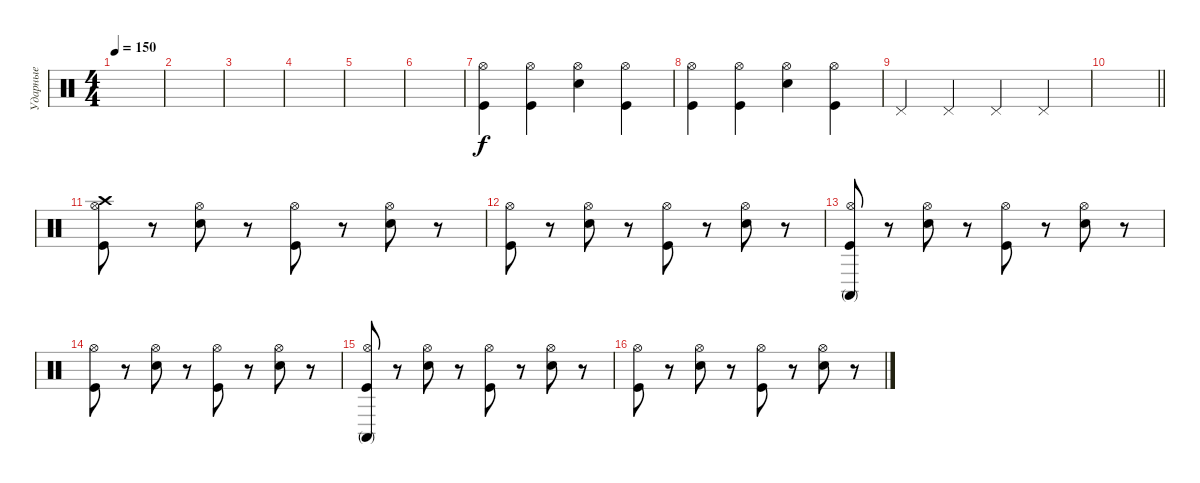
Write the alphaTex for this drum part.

\track ("Ударные" "Ударные") {instrument percussion}
\staff {score}
\articulation defaults
\ts (4 4)
\tempo 150
\clef neutral
\ks c
|
|
|
|
|
|
("Hi-Hat (open)" "Kick (hit)").4 ("Hi-Hat (open)" "Kick (hit)").4 ("Hi-Hat (open)" "Snare (hit) 2").4 ("Hi-Hat (open)" "Kick (hit)").4 |
("Hi-Hat (open)" "Kick (hit)").4 ("Hi-Hat (open)" "Kick (hit)").4 ("Hi-Hat (open)" "Snare (hit) 2").4 ("Hi-Hat (open)" "Kick (hit)").4 |
"Pedal Hi-Hat (hit)".4 "Pedal Hi-Hat (hit)".4 "Pedal Hi-Hat (hit)".4 "Pedal Hi-Hat (hit)".4 |
\barLineRight lightlight
|
("Hi-Hat (open)" "Kick (hit)" "Crash high (hit)").8 r.8 ("Hi-Hat (open)" "Snare (hit) 2").8 r.8 ("Hi-Hat (open)" "Kick (hit)").8 r.8 ("Hi-Hat (open)" "Snare (hit) 2").8 r.8 |
("Hi-Hat (open)" "Kick (hit)").8 r.8 ("Hi-Hat (open)" "Snare (hit) 2").8 r.8 ("Hi-Hat (open)" "Kick (hit)").8 r.8 ("Hi-Hat (open)" "Snare (hit) 2").8 r.8 |
("Hi-Hat (open)" "Kick (hit)" "Conga high (mute)").8 r.8 ("Hi-Hat (open)" "Snare (hit) 2").8 r.8 ("Hi-Hat (open)" "Kick (hit)").8 r.8 ("Hi-Hat (open)" "Snare (hit) 2").8 r.8 |
("Hi-Hat (open)" "Kick (hit)").8 r.8 ("Hi-Hat (open)" "Snare (hit) 2").8 r.8 ("Hi-Hat (open)" "Kick (hit)").8 r.8 ("Hi-Hat (open)" "Snare (hit) 2").8 r.8 |
("Hi-Hat (open)" "Kick (hit)" "Conga high (mute)").8 r.8 ("Hi-Hat (open)" "Snare (hit) 2").8 r.8 ("Hi-Hat (open)" "Kick (hit)").8 r.8 ("Hi-Hat (open)" "Snare (hit) 2").8 r.8 |
("Hi-Hat (open)" "Kick (hit)").8 r.8 ("Hi-Hat (open)" "Snare (hit) 2").8 r.8 ("Hi-Hat (open)" "Kick (hit)").8 r.8 ("Hi-Hat (open)" "Snare (hit) 2").8 r.8
